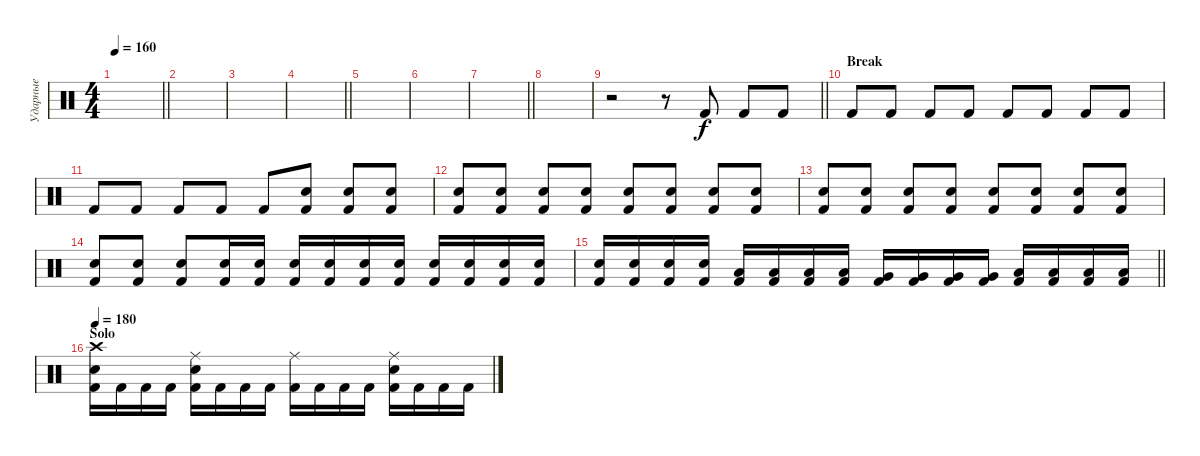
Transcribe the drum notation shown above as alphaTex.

\track ("Ударные" "Ударные") {instrument percussion}
\staff {score}
\articulation defaults
\ts (4 4)
\tempo 160
\clef neutral
\barLineRight lightlight
\ks c
|
|
|
\barLineRight lightlight
|
|
|
\barLineRight lightlight
|
|
\barLineRight lightlight
r.2 r.8 "Kick (hit) 2".8 "Kick (hit) 2".8 "Kick (hit) 2".8 |
\section ("" "Break")
"Kick (hit) 2".8 "Kick (hit) 2".8 "Kick (hit) 2".8 "Kick (hit) 2".8 "Kick (hit) 2".8 "Kick (hit) 2".8 "Kick (hit) 2".8 "Kick (hit) 2".8 |
"Kick (hit) 2".8 "Kick (hit) 2".8 "Kick (hit) 2".8 "Kick (hit) 2".8 "Kick (hit) 2".8 ("Snare (hit) 2" "Kick (hit) 2").8 ("Snare (hit) 2" "Kick (hit) 2").8 ("Snare (hit) 2" "Kick (hit) 2").8 |
("Snare (hit) 2" "Kick (hit) 2").8 ("Snare (hit) 2" "Kick (hit) 2").8 ("Snare (hit) 2" "Kick (hit) 2").8 ("Snare (hit) 2" "Kick (hit) 2").8 ("Snare (hit) 2" "Kick (hit) 2").8 ("Snare (hit) 2" "Kick (hit) 2").8 ("Snare (hit) 2" "Kick (hit) 2").8 ("Snare (hit) 2" "Kick (hit) 2").8 |
("Snare (hit) 2" "Kick (hit) 2").8 ("Snare (hit) 2" "Kick (hit) 2").8 ("Snare (hit) 2" "Kick (hit) 2").8 ("Snare (hit) 2" "Kick (hit) 2").8 ("Snare (hit) 2" "Kick (hit) 2").8 ("Snare (hit) 2" "Kick (hit) 2").8 ("Snare (hit) 2" "Kick (hit) 2").8 ("Snare (hit) 2" "Kick (hit) 2").8 |
("Snare (hit) 2" "Kick (hit) 2").8 ("Snare (hit) 2" "Kick (hit) 2").8 ("Snare (hit) 2" "Kick (hit) 2").8 ("Snare (hit) 2" "Kick (hit) 2").16 ("Snare (hit) 2" "Kick (hit) 2").16 ("Snare (hit) 2" "Kick (hit) 2").16 ("Snare (hit) 2" "Kick (hit) 2").16 ("Snare (hit) 2" "Kick (hit) 2").16 ("Snare (hit) 2" "Kick (hit) 2").16 ("Snare (hit) 2" "Kick (hit) 2").16 ("Snare (hit) 2" "Kick (hit) 2").16 ("Snare (hit) 2" "Kick (hit) 2").16 ("Snare (hit) 2" "Kick (hit) 2").16 |
\barLineRight lightlight
("Snare (hit) 2" "Kick (hit) 2").16 ("Snare (hit) 2" "Kick (hit) 2").16 ("Snare (hit) 2" "Kick (hit) 2").16 ("Snare (hit) 2" "Kick (hit) 2").16 ("Low Tom (hit)" "Kick (hit) 2").16 ("Low Tom (hit)" "Kick (hit) 2").16 ("Low Tom (hit)" "Kick (hit) 2").16 ("Low Tom (hit)" "Kick (hit) 2").16 ("Very Low Tom (hit)" "Kick (hit) 2").16 ("Very Low Tom (hit)" "Kick (hit) 2").16 ("Very Low Tom (hit)" "Kick (hit) 2").16 ("Very Low Tom (hit)" "Kick (hit) 2").16 ("Low Floor Tom (hit)" "Kick (hit) 2").16 ("Low Floor Tom (hit)" "Kick (hit) 2").16 ("Low Floor Tom (hit)" "Kick (hit) 2").16 ("Low Floor Tom (hit)" "Kick (hit) 2").16 |
\section ("" "Solo")
\tempo 180
("Crash high (hit)" "Snare (hit) 2" "Kick (hit) 2").16 "Kick (hit) 2".16 "Kick (hit) 2".16 "Kick (hit) 2".16 ("Ride (middle)" "Snare (hit) 2" "Kick (hit) 2").16 "Kick (hit) 2".16 "Kick (hit) 2".16 "Kick (hit) 2".16 ("Ride (middle)" "Kick (hit) 2").16 "Kick (hit) 2".16 "Kick (hit) 2".16 "Kick (hit) 2".16 ("Ride (middle)" "Snare (hit) 2" "Kick (hit) 2").16 "Kick (hit) 2".16 "Kick (hit) 2".16 "Kick (hit) 2".16
